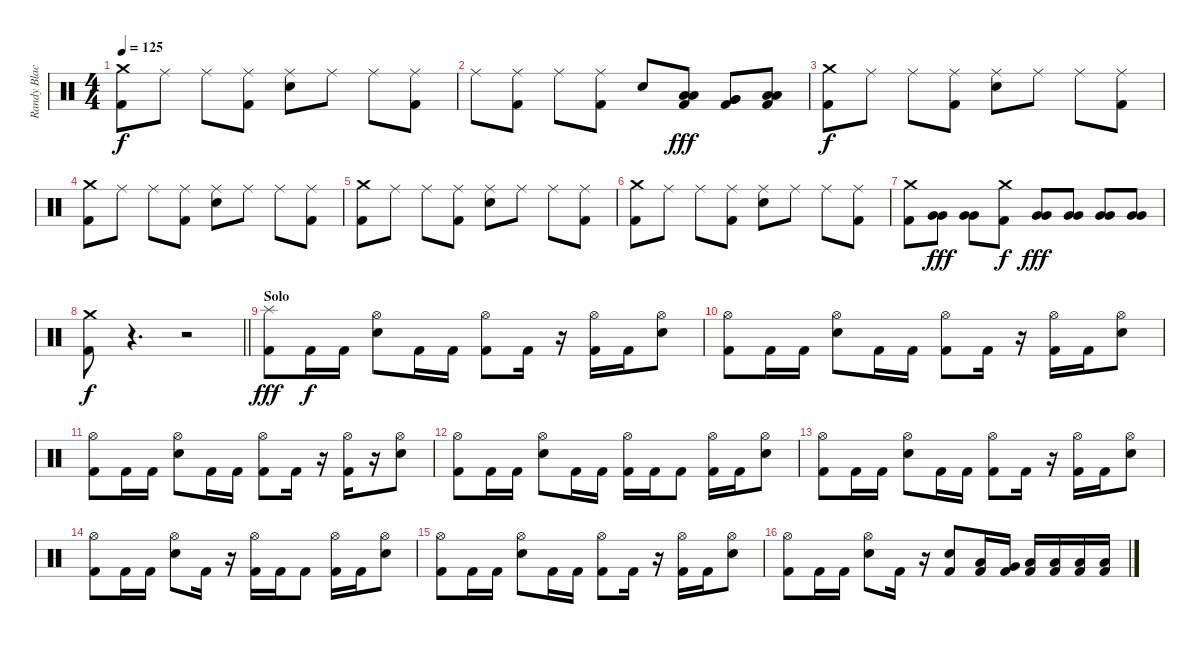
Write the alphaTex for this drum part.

\track ("Randy Black" "Randy Blac") {instrument percussion}
\staff {score}
\articulation defaults
\ts (4 4)
\tempo 125
\clef neutral
\ks c
("Crash medium (hit)" "Kick (hit) 2").8{dy f} "Ride (middle)".8 "Ride (middle)".8 ("Ride (middle)" "Kick (hit) 2").8 ("Ride (middle)" "Electric Snare (hit)").8 "Ride (middle)".8 "Ride (middle)".8 ("Ride (middle)" "Kick (hit) 2").8 |
"Ride (middle)".8 ("Ride (middle)" "Kick (hit) 2").8 "Ride (middle)".8 ("Ride (middle)" "Kick (hit) 2").8 "Electric Snare (hit)".8 ("Low Tom (hit)" "Low Tom (hit)" "Kick (hit) 2").8{dy fff} ("Very Low Tom (hit)" "Very Low Tom (hit)" "Kick (hit) 2").8 ("Low Floor Tom (hit)" "Low Floor Tom (hit)" "Kick (hit) 2").8 |
("Crash medium (hit)" "Kick (hit) 2").8{dy f} "Ride (middle)".8 "Ride (middle)".8 ("Ride (middle)" "Kick (hit) 2").8 ("Ride (middle)" "Electric Snare (hit)").8 "Ride (middle)".8 "Ride (middle)".8 ("Ride (middle)" "Kick (hit) 2").8 |
("Crash medium (hit)" "Kick (hit) 2").8 "Ride (middle)".8 "Ride (middle)".8 ("Ride (middle)" "Kick (hit) 2").8 ("Ride (middle)" "Electric Snare (hit)").8 "Ride (middle)".8 "Ride (middle)".8 ("Ride (middle)" "Kick (hit) 2").8 |
("Crash medium (hit)" "Kick (hit) 2").8 "Ride (middle)".8 "Ride (middle)".8 ("Ride (middle)" "Kick (hit) 2").8 ("Ride (middle)" "Electric Snare (hit)").8 "Ride (middle)".8 "Ride (middle)".8 ("Ride (middle)" "Kick (hit) 2").8 |
("Crash medium (hit)" "Kick (hit) 2").8 "Ride (middle)".8 "Ride (middle)".8 ("Ride (middle)" "Kick (hit) 2").8 ("Ride (middle)" "Electric Snare (hit)").8 "Ride (middle)".8 "Ride (middle)".8 ("Ride (middle)" "Kick (hit) 2").8 |
("Crash medium (hit)" "Kick (hit) 2").8 ("Very Low Tom (hit)" "Very Low Tom (hit)").8{dy fff} ("Very Low Tom (hit)" "Very Low Tom (hit)").8 ("Crash medium (hit)" "Kick (hit) 2").8{dy f} ("Very Low Tom (hit)" "Very Low Tom (hit)").8{dy fff} ("Very Low Tom (hit)" "Very Low Tom (hit)").8 ("Very Low Tom (hit)" "Very Low Tom (hit)").8 ("Very Low Tom (hit)" "Very Low Tom (hit)").8 |
\barLineRight lightlight
("Crash medium (hit)" "Kick (hit) 2").8{dy f} r.4{d} r.2 |
\section ("" "Solo")
("Splash (hit)" "Kick (hit) 2").8{dy fff} "Kick (hit) 2".16{dy f} "Kick (hit) 2".16 ("Hi-Hat (open)" "Electric Snare (hit)").8 "Kick (hit) 2".16 "Kick (hit) 2".16 ("Hi-Hat (open)" "Kick (hit) 2").8 "Kick (hit) 2".16 r.16 ("Hi-Hat (open)" "Kick (hit) 2").16 "Kick (hit) 2".16 ("Hi-Hat (open)" "Electric Snare (hit)").8 |
("Hi-Hat (open)" "Kick (hit) 2").8 "Kick (hit) 2".16 "Kick (hit) 2".16 ("Hi-Hat (open)" "Electric Snare (hit)").8 "Kick (hit) 2".16 "Kick (hit) 2".16 ("Hi-Hat (open)" "Kick (hit) 2").8 "Kick (hit) 2".16 r.16 ("Hi-Hat (open)" "Kick (hit) 2").16 "Kick (hit) 2".16 ("Hi-Hat (open)" "Electric Snare (hit)").8 |
("Hi-Hat (open)" "Kick (hit) 2").8 "Kick (hit) 2".16 "Kick (hit) 2".16 ("Hi-Hat (open)" "Electric Snare (hit)").8 "Kick (hit) 2".16 "Kick (hit) 2".16 ("Hi-Hat (open)" "Kick (hit) 2").8 "Kick (hit) 2".16 r.16 ("Hi-Hat (open)" "Kick (hit) 2").16 r.16 ("Hi-Hat (open)" "Electric Snare (hit)").8 |
("Hi-Hat (open)" "Kick (hit) 2").8 "Kick (hit) 2".16 "Kick (hit) 2".16 ("Hi-Hat (open)" "Electric Snare (hit)").8 "Kick (hit) 2".16 "Kick (hit) 2".16 ("Hi-Hat (open)" "Kick (hit) 2").16 "Kick (hit) 2".16 "Kick (hit) 2".8 ("Hi-Hat (open)" "Kick (hit) 2").16 "Kick (hit) 2".16 ("Hi-Hat (open)" "Electric Snare (hit)").8 |
("Hi-Hat (open)" "Kick (hit) 2").8 "Kick (hit) 2".16 "Kick (hit) 2".16 ("Hi-Hat (open)" "Electric Snare (hit)").8 "Kick (hit) 2".16 "Kick (hit) 2".16 ("Hi-Hat (open)" "Kick (hit) 2").8 "Kick (hit) 2".16 r.16 ("Hi-Hat (open)" "Kick (hit) 2").16 "Kick (hit) 2".16 ("Hi-Hat (open)" "Electric Snare (hit)").8 |
("Hi-Hat (open)" "Kick (hit) 2").8 "Kick (hit) 2".16 "Kick (hit) 2".16 ("Hi-Hat (open)" "Electric Snare (hit)").8 "Kick (hit) 2".16 r.16 ("Hi-Hat (open)" "Kick (hit) 2").16 "Kick (hit) 2".16 "Kick (hit) 2".8 ("Hi-Hat (open)" "Kick (hit) 2").16 "Kick (hit) 2".16 ("Hi-Hat (open)" "Electric Snare (hit)").8 |
("Hi-Hat (open)" "Kick (hit) 2").8 "Kick (hit) 2".16 "Kick (hit) 2".16 ("Hi-Hat (open)" "Electric Snare (hit)").8 "Kick (hit) 2".16 "Kick (hit) 2".16 ("Hi-Hat (open)" "Kick (hit) 2").8 "Kick (hit) 2".16 r.16 ("Hi-Hat (open)" "Kick (hit) 2").16 "Kick (hit) 2".16 ("Hi-Hat (open)" "Electric Snare (hit)").8 |
("Hi-Hat (open)" "Kick (hit) 2").8 "Kick (hit) 2".16 "Kick (hit) 2".16 ("Hi-Hat (open)" "Electric Snare (hit)").8 "Kick (hit) 2".16 r.16 ("Electric Snare (hit)" "Kick (hit) 2").8 ("Low Tom (hit)" "Kick (hit) 2").16 ("Very Low Tom (hit)" "Kick (hit) 2").16 ("Low Floor Tom (hit)" "Kick (hit) 2").16 ("Low Floor Tom (hit)" "Kick (hit) 2").16 ("Low Floor Tom (hit)" "Kick (hit) 2").16 ("Low Floor Tom (hit)" "Kick (hit) 2").16
